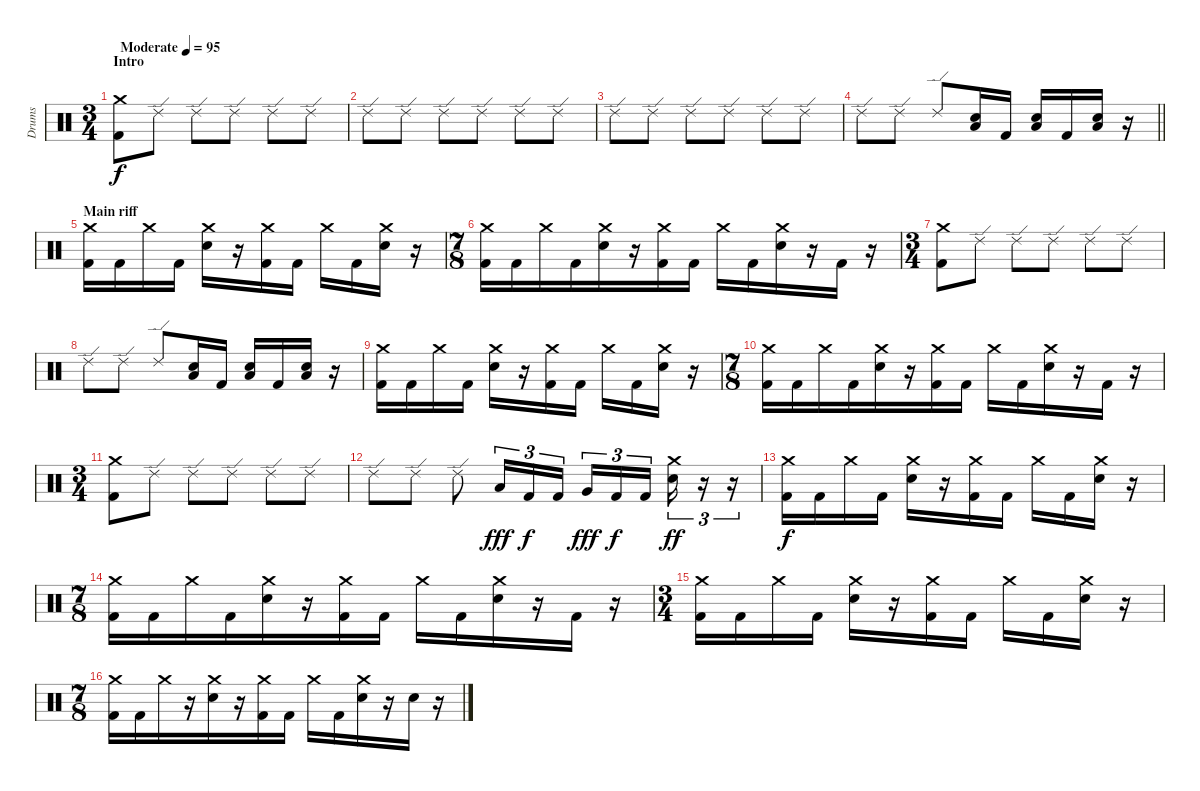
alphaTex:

\track ("Drums" "Drums") {instrument percussion}
\staff {score}
\articulation defaults
\ts (3 4)
\section ("" "Intro")
\tempo (95 "Moderate")
\clef neutral
\ks c
("Crash medium (hit)" "Kick (hit) 2").8{dy f} "Ride (edge) 2".8 "Ride (edge) 2".8 "Ride (edge) 2".8 "Ride (edge) 2".8 "Ride (edge) 2".8 |
"Ride (edge) 2".8 "Ride (edge) 2".8 "Ride (edge) 2".8 "Ride (edge) 2".8 "Ride (edge) 2".8 "Ride (edge) 2".8 |
"Ride (edge) 2".8 "Ride (edge) 2".8 "Ride (edge) 2".8 "Ride (edge) 2".8 "Ride (edge) 2".8 "Ride (edge) 2".8 |
\barLineRight lightlight "Ride (edge) 2".8 "Ride (edge) 2".8 "Ride (edge) 2".8
("Low Floor Tom (hit)" "Electric Snare (hit)").16 "Kick (hit) 2".16 ("Low Floor Tom (hit)" "Electric Snare (hit)").16 "Kick (hit) 2".16 ("Low Floor Tom (hit)" "Electric Snare (hit)").16 r.16 |
\section ("" "Main riff")
("Crash medium (hit)" "Kick (hit) 2").16 "Kick (hit) 2".16 "Crash medium (hit)".16 "Kick (hit) 2".16 ("Crash medium (hit)" "Electric Snare (hit)").16 r.16 ("Crash medium (hit)" "Kick (hit) 2").16 "Kick (hit) 2".16 "Crash medium (hit)".16 "Kick (hit) 2".16 ("Crash medium (hit)" "Electric Snare (hit)").16 r.16 |
\ts (7 8)
("Crash medium (hit)" "Kick (hit) 2").16 "Kick (hit) 2".16 "Crash medium (hit)".16 "Kick (hit) 2".16 ("Crash medium (hit)" "Electric Snare (hit)").16 r.16 ("Crash medium (hit)" "Kick (hit) 2").16 "Kick (hit) 2".16 "Crash medium (hit)".16 "Kick (hit) 2".16 ("Crash medium (hit)" "Electric Snare (hit)").16 r.16 "Kick (hit) 2".16 r.16 |
\ts (3 4)
("Crash medium (hit)" "Kick (hit) 2").8 "Ride (edge) 2".8 "Ride (edge) 2".8 "Ride (edge) 2".8 "Ride (edge) 2".8 "Ride (edge) 2".8 |
"Ride (edge) 2".8 "Ride (edge) 2".8 "Ride (edge) 2".8 ("Low Floor Tom (hit)" "Electric Snare (hit)").16 "Kick (hit) 2".16 ("Low Floor Tom (hit)" "Electric Snare (hit)").16 "Kick (hit) 2".16 ("Low Floor Tom (hit)" "Electric Snare (hit)").16 r.16 |
("Crash medium (hit)" "Kick (hit) 2").16 "Kick (hit) 2".16 "Crash medium (hit)".16 "Kick (hit) 2".16 ("Crash medium (hit)" "Electric Snare (hit)").16 r.16 ("Crash medium (hit)" "Kick (hit) 2").16 "Kick (hit) 2".16 "Crash medium (hit)".16 "Kick (hit) 2".16 ("Crash medium (hit)" "Electric Snare (hit)").16 r.16 |
\ts (7 8)
("Crash medium (hit)" "Kick (hit) 2").16 "Kick (hit) 2".16 "Crash medium (hit)".16 "Kick (hit) 2".16 ("Crash medium (hit)" "Electric Snare (hit)").16 r.16 ("Crash medium (hit)" "Kick (hit) 2").16 "Kick (hit) 2".16 "Crash medium (hit)".16 "Kick (hit) 2".16 ("Crash medium (hit)" "Electric Snare (hit)").16 r.16 "Kick (hit) 2".16 r.16 |
\ts (3 4)
("Crash medium (hit)" "Kick (hit) 2").8 "Ride (edge) 2".8 "Ride (edge) 2".8 "Ride (edge) 2".8 "Ride (edge) 2".8 "Ride (edge) 2".8 |
"Ride (edge) 2".8 "Ride (edge) 2".8 "Ride (edge) 2".8 "Low Tom (hit)".16{tu (3 2) dy fff} "Kick (hit) 2".16{tu (3 2) dy f} "Kick (hit) 2".16{tu (3 2)} "Very Low Tom (hit)".16{tu (3 2) dy fff} "Kick (hit) 2".16{tu (3 2) dy f} "Kick (hit) 2".16{tu (3 2) beam splitsecondary} ("Crash medium (hit)" "Electric Snare (hit)").16{tu (3 2) dy ff} r.16{tu (3 2)} r.16{tu (3 2)} |
("Crash medium (hit)" "Kick (hit) 2").16{dy f} "Kick (hit) 2".16 "Crash medium (hit)".16 "Kick (hit) 2".16 ("Crash medium (hit)" "Electric Snare (hit)").16 r.16 ("Crash medium (hit)" "Kick (hit) 2").16 "Kick (hit) 2".16 "Crash medium (hit)".16 "Kick (hit) 2".16 ("Crash medium (hit)" "Electric Snare (hit)").16 r.16 |
\ts (7 8)
("Crash medium (hit)" "Kick (hit) 2").16 "Kick (hit) 2".16 "Crash medium (hit)".16 "Kick (hit) 2".16 ("Crash medium (hit)" "Electric Snare (hit)").16 r.16 ("Crash medium (hit)" "Kick (hit) 2").16 "Kick (hit) 2".16 "Crash medium (hit)".16 "Kick (hit) 2".16 ("Crash medium (hit)" "Electric Snare (hit)").16 r.16 "Kick (hit) 2".16 r.16 |
\ts (3 4)
("Crash medium (hit)" "Kick (hit) 2").16 "Kick (hit) 2".16 "Crash medium (hit)".16 "Kick (hit) 2".16 ("Crash medium (hit)" "Electric Snare (hit)").16 r.16 ("Crash medium (hit)" "Kick (hit) 2").16 "Kick (hit) 2".16 "Crash medium (hit)".16 "Kick (hit) 2".16 ("Crash medium (hit)" "Electric Snare (hit)").16 r.16 |
\ts (7 8)
("Crash medium (hit)" "Kick (hit) 2").16 "Kick (hit) 2".16 "Crash medium (hit)".16 r.16 ("Crash medium (hit)" "Electric Snare (hit)").16 r.16 ("Crash medium (hit)" "Kick (hit) 2").16 "Kick (hit) 2".16 "Crash medium (hit)".16 "Kick (hit) 2".16 ("Crash medium (hit)" "Electric Snare (hit)").16 r.16 "Electric Snare (hit)".16 r.16
